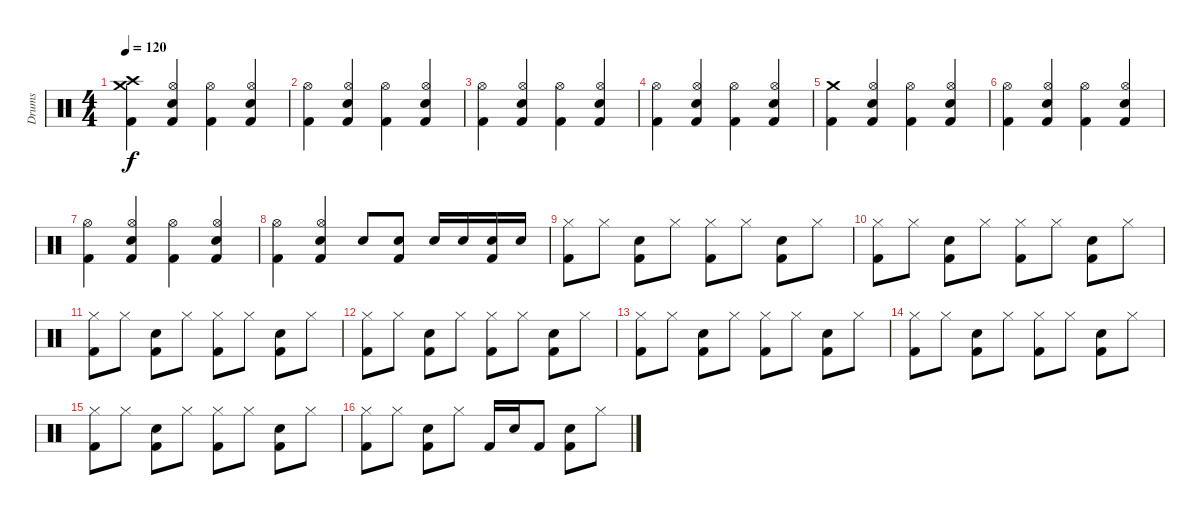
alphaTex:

\track ("Drums" "Drums") {instrument percussion}
\staff {score}
\articulation defaults
\ts (4 4)
\tempo 120
\clef neutral
\ks c
("Crash medium (hit)" "Crash high (hit)" "Kick (hit) 2").4{dy f} ("Hi-Hat (open)" "Electric Snare (hit)" "Kick (hit) 2").4 ("Hi-Hat (open)" "Kick (hit) 2").4 ("Hi-Hat (open)" "Electric Snare (hit)" "Kick (hit) 2").4 |
("Hi-Hat (open)" "Kick (hit) 2").4 ("Hi-Hat (open)" "Electric Snare (hit)" "Kick (hit) 2").4 ("Hi-Hat (open)" "Kick (hit) 2").4 ("Hi-Hat (open)" "Electric Snare (hit)" "Kick (hit) 2").4 |
("Hi-Hat (open)" "Kick (hit) 2").4 ("Hi-Hat (open)" "Electric Snare (hit)" "Kick (hit) 2").4 ("Hi-Hat (open)" "Kick (hit) 2").4 ("Hi-Hat (open)" "Electric Snare (hit)" "Kick (hit) 2").4 |
("Hi-Hat (open)" "Kick (hit) 2").4 ("Hi-Hat (open)" "Electric Snare (hit)" "Kick (hit) 2").4 ("Hi-Hat (open)" "Kick (hit) 2").4 ("Hi-Hat (open)" "Electric Snare (hit)" "Kick (hit) 2").4 |
("Crash medium (hit)" "Kick (hit) 2").4 ("Hi-Hat (open)" "Electric Snare (hit)" "Kick (hit) 2").4 ("Hi-Hat (open)" "Kick (hit) 2").4 ("Hi-Hat (open)" "Electric Snare (hit)" "Kick (hit) 2").4 |
("Hi-Hat (open)" "Kick (hit) 2").4 ("Hi-Hat (open)" "Electric Snare (hit)" "Kick (hit) 2").4 ("Hi-Hat (open)" "Kick (hit) 2").4 ("Hi-Hat (open)" "Electric Snare (hit)" "Kick (hit) 2").4 |
("Hi-Hat (open)" "Kick (hit) 2").4 ("Hi-Hat (open)" "Electric Snare (hit)" "Kick (hit) 2").4 ("Hi-Hat (open)" "Kick (hit) 2").4 ("Hi-Hat (open)" "Electric Snare (hit)" "Kick (hit) 2").4 |
("Hi-Hat (open)" "Kick (hit) 2").4 ("Hi-Hat (open)" "Electric Snare (hit)" "Kick (hit) 2").4 "Electric Snare (hit)".8 ("Kick (hit) 2" "Electric Snare (hit)").8 "Electric Snare (hit)".16 "Electric Snare (hit)".16 ("Kick (hit) 2" "Electric Snare (hit)").16 "Electric Snare (hit)".16 |
("Hi-Hat (closed)" "Kick (hit) 2").8 "Hi-Hat (closed)".8 ("Electric Snare (hit)" "Kick (hit) 2").8 "Hi-Hat (closed)".8 ("Hi-Hat (closed)" "Kick (hit) 2").8 "Hi-Hat (closed)".8 ("Electric Snare (hit)" "Kick (hit) 2").8 "Hi-Hat (closed)".8 |
("Hi-Hat (closed)" "Kick (hit) 2").8 "Hi-Hat (closed)".8 ("Electric Snare (hit)" "Kick (hit) 2").8 "Hi-Hat (closed)".8 ("Hi-Hat (closed)" "Kick (hit) 2").8 "Hi-Hat (closed)".8 ("Electric Snare (hit)" "Kick (hit) 2").8 "Hi-Hat (closed)".8 |
("Hi-Hat (closed)" "Kick (hit) 2").8 "Hi-Hat (closed)".8 ("Electric Snare (hit)" "Kick (hit) 2").8 "Hi-Hat (closed)".8 ("Hi-Hat (closed)" "Kick (hit) 2").8 "Hi-Hat (closed)".8 ("Electric Snare (hit)" "Kick (hit) 2").8 "Hi-Hat (closed)".8 |
("Hi-Hat (closed)" "Kick (hit) 2").8 "Hi-Hat (closed)".8 ("Electric Snare (hit)" "Kick (hit) 2").8 "Hi-Hat (closed)".8 ("Hi-Hat (closed)" "Kick (hit) 2").8 "Hi-Hat (closed)".8 ("Electric Snare (hit)" "Kick (hit) 2").8 "Hi-Hat (closed)".8 |
("Hi-Hat (closed)" "Kick (hit) 2").8 "Hi-Hat (closed)".8 ("Electric Snare (hit)" "Kick (hit) 2").8 "Hi-Hat (closed)".8 ("Hi-Hat (closed)" "Kick (hit) 2").8 "Hi-Hat (closed)".8 ("Electric Snare (hit)" "Kick (hit) 2").8 "Hi-Hat (closed)".8 |
("Hi-Hat (closed)" "Kick (hit) 2").8 "Hi-Hat (closed)".8 ("Electric Snare (hit)" "Kick (hit) 2").8 "Hi-Hat (closed)".8 ("Hi-Hat (closed)" "Kick (hit) 2").8 "Hi-Hat (closed)".8 ("Electric Snare (hit)" "Kick (hit) 2").8 "Hi-Hat (closed)".8 |
("Hi-Hat (closed)" "Kick (hit) 2").8 "Hi-Hat (closed)".8 ("Electric Snare (hit)" "Kick (hit) 2").8 "Hi-Hat (closed)".8 ("Hi-Hat (closed)" "Kick (hit) 2").8 "Hi-Hat (closed)".8 ("Electric Snare (hit)" "Kick (hit) 2").8 "Hi-Hat (closed)".8 |
("Hi-Hat (closed)" "Kick (hit) 2").8 "Hi-Hat (closed)".8 ("Electric Snare (hit)" "Kick (hit) 2").8 "Hi-Hat (closed)".8 "Kick (hit) 2".16 "Electric Snare (hit)".16 "Kick (hit) 2".8 ("Electric Snare (hit)" "Kick (hit) 2").8 "Hi-Hat (closed)".8
